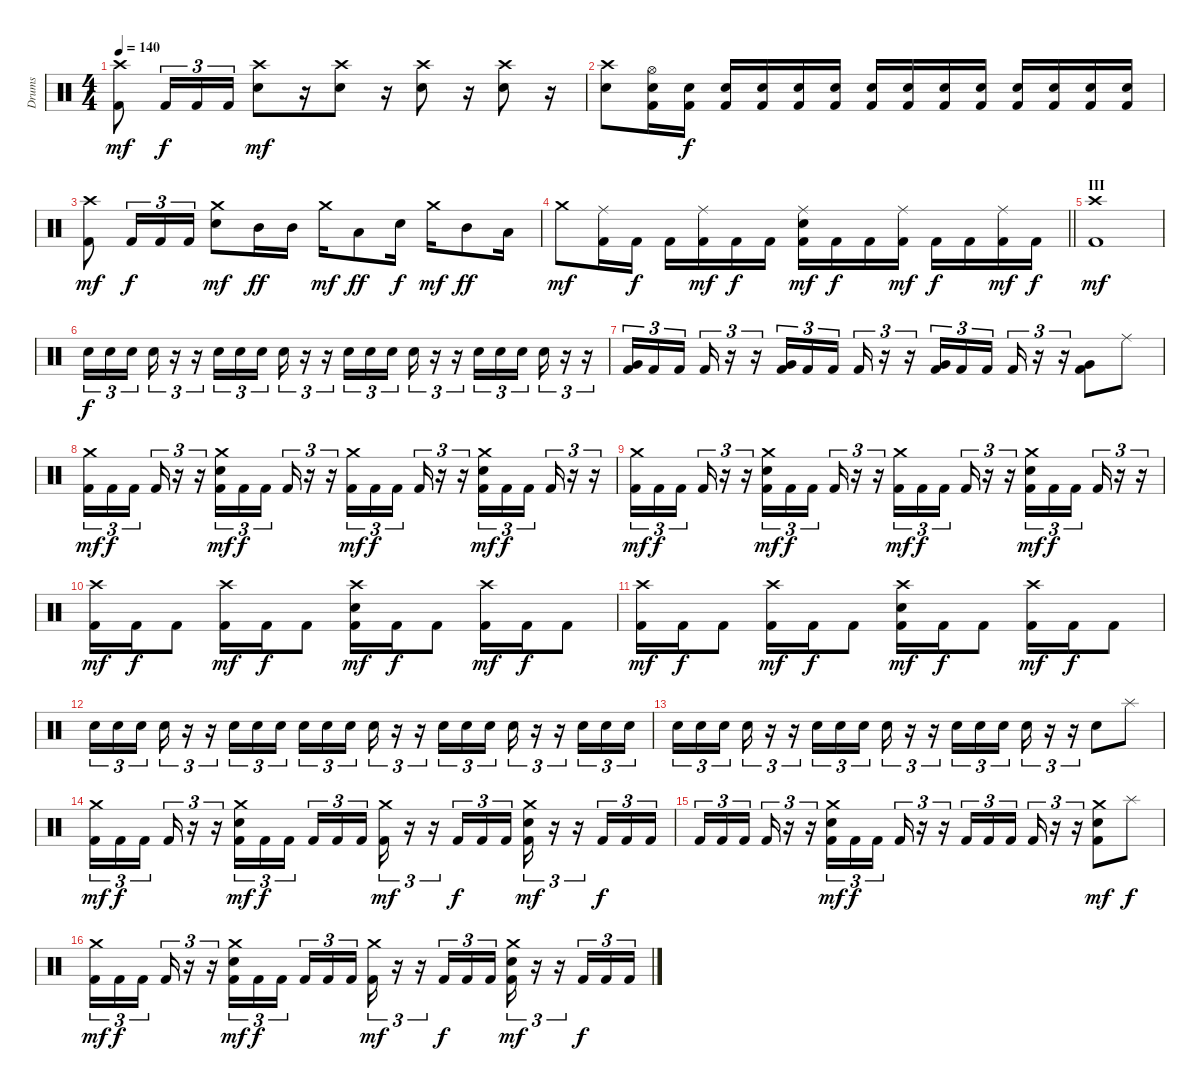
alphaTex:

\track ("Drums" "Drums") {instrument percussion}
\staff {score}
\articulation defaults
\ts (4 4)
\tempo 140
\clef neutral
\ks c
("Crash high (hit)" "Kick (hit) 2").8{dy mf} "Kick (hit) 2".16{tu (3 2) dy f} "Kick (hit) 2".16{tu (3 2)} "Kick (hit) 2".16{tu (3 2)} ("Crash high (hit)" "Electric Snare (hit)").8{dy mf} r.16 ("Crash high (hit)" "Electric Snare (hit)").8 r.16 ("Crash high (hit)" "Electric Snare (hit)").8 r.16 ("Crash high (hit)" "Electric Snare (hit)").8 r.16 |
("Crash high (hit)" "Electric Snare (hit)").8 ("Hi-Hat (open)" "Electric Snare (hit)" "Kick (hit) 2").16 ("Electric Snare (hit)" "Kick (hit) 2").16{dy f} ("Electric Snare (hit)" "Kick (hit) 2").16 ("Electric Snare (hit)" "Kick (hit) 2").16 ("Electric Snare (hit)" "Kick (hit) 2").16 ("Electric Snare (hit)" "Kick (hit) 2").16 ("Electric Snare (hit)" "Kick (hit) 2").16 ("Electric Snare (hit)" "Kick (hit) 2").16 ("Electric Snare (hit)" "Kick (hit) 2").16 ("Electric Snare (hit)" "Kick (hit) 2").16 ("Electric Snare (hit)" "Kick (hit) 2").16 ("Electric Snare (hit)" "Kick (hit) 2").16 ("Electric Snare (hit)" "Kick (hit) 2").16 ("Electric Snare (hit)" "Kick (hit) 2").16 |
("Crash high (hit)" "Kick (hit) 2").8{dy mf} "Kick (hit) 2".16{tu (3 2) dy f} "Kick (hit) 2".16{tu (3 2)} "Kick (hit) 2".16{tu (3 2)} ("Crash medium (hit)" "Electric Snare (hit)").8{dy mf} "Mid Tom (hit)".16{dy ff} "Mid Tom (hit)".16 "Crash medium (hit)".16{dy mf} "Low Tom (hit)".8{dy ff} "Electric Snare (hit)".16{dy f} "Crash medium (hit)".16{dy mf} "Mid Tom (hit)".8{dy ff} "Low Tom (hit)".16 |
\barLineRight lightlight "Crash medium (hit)".8{dy mf}
("Ride (middle)" "Kick (hit) 2").16 "Kick (hit) 2".16{dy f} "Kick (hit) 2".16 ("Ride (middle)" "Kick (hit) 2").16{dy mf} "Kick (hit) 2".16{dy f} "Kick (hit) 2".16 ("Ride (middle)" "Electric Snare (hit)" "Kick (hit) 2").16{dy mf} "Kick (hit) 2".16{dy f} "Kick (hit) 2".16 ("Ride (middle)" "Kick (hit) 2").16{dy mf} "Kick (hit) 2".16{dy f} "Kick (hit) 2".16 ("Ride (middle)" "Kick (hit) 2").16{dy mf} "Kick (hit) 2".16{dy f} |
\section ("" "III")
("Crash high (hit)" "Kick (hit) 2").1{dy mf} |
"Electric Snare (hit)".16{tu (3 2) dy f} "Electric Snare (hit)".16{tu (3 2)} "Electric Snare (hit)".16{tu (3 2) beam splitsecondary} "Electric Snare (hit)".16{tu (3 2)} r.16{tu (3 2)} r.16{tu (3 2)} "Electric Snare (hit)".16{tu (3 2)} "Electric Snare (hit)".16{tu (3 2)} "Electric Snare (hit)".16{tu (3 2) beam splitsecondary} "Electric Snare (hit)".16{tu (3 2)} r.16{tu (3 2)} r.16{tu (3 2)} "Electric Snare (hit)".16{tu (3 2)} "Electric Snare (hit)".16{tu (3 2)} "Electric Snare (hit)".16{tu (3 2) beam splitsecondary} "Electric Snare (hit)".16{tu (3 2)} r.16{tu (3 2)} r.16{tu (3 2)} "Electric Snare (hit)".16{tu (3 2)} "Electric Snare (hit)".16{tu (3 2)} "Electric Snare (hit)".16{tu (3 2) beam splitsecondary} "Electric Snare (hit)".16{tu (3 2)} r.16{tu (3 2)} r.16{tu (3 2)} |
("Very Low Tom (hit)" "Kick (hit) 2").16{tu (3 2)} "Kick (hit) 2".16{tu (3 2)} "Kick (hit) 2".16{tu (3 2) beam splitsecondary} "Kick (hit) 2".16{tu (3 2)} r.16{tu (3 2)} r.16{tu (3 2)} ("Very Low Tom (hit)" "Kick (hit) 2").16{tu (3 2)} "Kick (hit) 2".16{tu (3 2)} "Kick (hit) 2".16{tu (3 2) beam splitsecondary} "Kick (hit) 2".16{tu (3 2)} r.16{tu (3 2)} r.16{tu (3 2)} ("Very Low Tom (hit)" "Kick (hit) 2").16{tu (3 2)} "Kick (hit) 2".16{tu (3 2)} "Kick (hit) 2".16{tu (3 2) beam splitsecondary} "Kick (hit) 2".16{tu (3 2)} r.16{tu (3 2)} r.16{tu (3 2)} ("Very Low Tom (hit)" "Kick (hit) 2").8 "Ride (middle)".8 |
("Crash medium (hit)" "Kick (hit) 2").16{tu (3 2) dy mf} "Kick (hit) 2".16{tu (3 2) dy f} "Kick (hit) 2".16{tu (3 2) beam splitsecondary} "Kick (hit) 2".16{tu (3 2)} r.16{tu (3 2)} r.16{tu (3 2)} ("Crash medium (hit)" "Electric Snare (hit)" "Kick (hit) 2").16{tu (3 2) dy mf} "Kick (hit) 2".16{tu (3 2) dy f} "Kick (hit) 2".16{tu (3 2) beam splitsecondary} "Kick (hit) 2".16{tu (3 2)} r.16{tu (3 2)} r.16{tu (3 2)} ("Crash medium (hit)" "Kick (hit) 2").16{tu (3 2) dy mf} "Kick (hit) 2".16{tu (3 2) dy f} "Kick (hit) 2".16{tu (3 2) beam splitsecondary} "Kick (hit) 2".16{tu (3 2)} r.16{tu (3 2)} r.16{tu (3 2)} ("Crash medium (hit)" "Electric Snare (hit)" "Kick (hit) 2").16{tu (3 2) dy mf} "Kick (hit) 2".16{tu (3 2) dy f} "Kick (hit) 2".16{tu (3 2) beam splitsecondary} "Kick (hit) 2".16{tu (3 2)} r.16{tu (3 2)} r.16{tu (3 2)} |
("Crash medium (hit)" "Kick (hit) 2").16{tu (3 2) dy mf} "Kick (hit) 2".16{tu (3 2) dy f} "Kick (hit) 2".16{tu (3 2) beam splitsecondary} "Kick (hit) 2".16{tu (3 2)} r.16{tu (3 2)} r.16{tu (3 2)} ("Crash medium (hit)" "Electric Snare (hit)" "Kick (hit) 2").16{tu (3 2) dy mf} "Kick (hit) 2".16{tu (3 2) dy f} "Kick (hit) 2".16{tu (3 2) beam splitsecondary} "Kick (hit) 2".16{tu (3 2)} r.16{tu (3 2)} r.16{tu (3 2)} ("Crash medium (hit)" "Kick (hit) 2").16{tu (3 2) dy mf} "Kick (hit) 2".16{tu (3 2) dy f} "Kick (hit) 2".16{tu (3 2) beam splitsecondary} "Kick (hit) 2".16{tu (3 2)} r.16{tu (3 2)} r.16{tu (3 2)} ("Crash medium (hit)" "Electric Snare (hit)" "Kick (hit) 2").16{tu (3 2) dy mf} "Kick (hit) 2".16{tu (3 2) dy f} "Kick (hit) 2".16{tu (3 2) beam splitsecondary} "Kick (hit) 2".16{tu (3 2)} r.16{tu (3 2)} r.16{tu (3 2)} |
("Crash high (hit)" "Kick (hit) 2").16{dy mf} "Kick (hit) 2".16{dy f} "Kick (hit) 2".8 ("Crash high (hit)" "Kick (hit) 2").16{dy mf} "Kick (hit) 2".16{dy f} "Kick (hit) 2".8 ("Crash high (hit)" "Electric Snare (hit)" "Kick (hit) 2").16{dy mf} "Kick (hit) 2".16{dy f} "Kick (hit) 2".8 ("Crash high (hit)" "Kick (hit) 2").16{dy mf} "Kick (hit) 2".16{dy f} "Kick (hit) 2".8 |
("Crash high (hit)" "Kick (hit) 2").16{dy mf} "Kick (hit) 2".16{dy f} "Kick (hit) 2".8 ("Crash high (hit)" "Kick (hit) 2").16{dy mf} "Kick (hit) 2".16{dy f} "Kick (hit) 2".8 ("Crash high (hit)" "Electric Snare (hit)" "Kick (hit) 2").16{dy mf} "Kick (hit) 2".16{dy f} "Kick (hit) 2".8 ("Crash high (hit)" "Kick (hit) 2").16{dy mf} "Kick (hit) 2".16{dy f} "Kick (hit) 2".8 |
"Electric Snare (hit)".16{tu (3 2)} "Electric Snare (hit)".16{tu (3 2)} "Electric Snare (hit)".16{tu (3 2) beam splitsecondary} "Electric Snare (hit)".16{tu (3 2)} r.16{tu (3 2)} r.16{tu (3 2)} "Electric Snare (hit)".16{tu (3 2)} "Electric Snare (hit)".16{tu (3 2)} "Electric Snare (hit)".16{tu (3 2) beam splitsecondary} "Electric Snare (hit)".16{tu (3 2)} "Electric Snare (hit)".16{tu (3 2)} "Electric Snare (hit)".16{tu (3 2)} "Electric Snare (hit)".16{tu (3 2)} r.16{tu (3 2)} r.16{tu (3 2)} "Electric Snare (hit)".16{tu (3 2)} "Electric Snare (hit)".16{tu (3 2)} "Electric Snare (hit)".16{tu (3 2)} "Electric Snare (hit)".16{tu (3 2)} r.16{tu (3 2)} r.16{tu (3 2)} "Electric Snare (hit)".16{tu (3 2)} "Electric Snare (hit)".16{tu (3 2)} "Electric Snare (hit)".16{tu (3 2)} |
"Electric Snare (hit)".16{tu (3 2)} "Electric Snare (hit)".16{tu (3 2)} "Electric Snare (hit)".16{tu (3 2) beam splitsecondary} "Electric Snare (hit)".16{tu (3 2)} r.16{tu (3 2)} r.16{tu (3 2)} "Electric Snare (hit)".16{tu (3 2)} "Electric Snare (hit)".16{tu (3 2)} "Electric Snare (hit)".16{tu (3 2) beam splitsecondary} "Electric Snare (hit)".16{tu (3 2)} r.16{tu (3 2)} r.16{tu (3 2)} "Electric Snare (hit)".16{tu (3 2)} "Electric Snare (hit)".16{tu (3 2)} "Electric Snare (hit)".16{tu (3 2) beam splitsecondary} "Electric Snare (hit)".16{tu (3 2)} r.16{tu (3 2)} r.16{tu (3 2)} "Electric Snare (hit)".8 "Splash (hit)".8 |
("Crash medium (hit)" "Kick (hit) 2").16{tu (3 2) dy mf} "Kick (hit) 2".16{tu (3 2) dy f} "Kick (hit) 2".16{tu (3 2) beam splitsecondary} "Kick (hit) 2".16{tu (3 2)} r.16{tu (3 2)} r.16{tu (3 2)} ("Crash medium (hit)" "Electric Snare (hit)" "Kick (hit) 2").16{tu (3 2) dy mf} "Kick (hit) 2".16{tu (3 2) dy f} "Kick (hit) 2".16{tu (3 2) beam splitsecondary} "Kick (hit) 2".16{tu (3 2)} "Kick (hit) 2".16{tu (3 2)} "Kick (hit) 2".16{tu (3 2)} ("Crash medium (hit)" "Kick (hit) 2").16{tu (3 2) dy mf} r.16{tu (3 2)} r.16{tu (3 2)} "Kick (hit) 2".16{tu (3 2) dy f} "Kick (hit) 2".16{tu (3 2)} "Kick (hit) 2".16{tu (3 2)} ("Crash medium (hit)" "Electric Snare (hit)" "Kick (hit) 2").16{tu (3 2) dy mf} r.16{tu (3 2)} r.16{tu (3 2)} "Kick (hit) 2".16{tu (3 2) dy f} "Kick (hit) 2".16{tu (3 2)} "Kick (hit) 2".16{tu (3 2)} |
"Kick (hit) 2".16{tu (3 2)} "Kick (hit) 2".16{tu (3 2)} "Kick (hit) 2".16{tu (3 2) beam splitsecondary} "Kick (hit) 2".16{tu (3 2)} r.16{tu (3 2)} r.16{tu (3 2)} ("Crash medium (hit)" "Electric Snare (hit)" "Kick (hit) 2").16{tu (3 2) dy mf} "Kick (hit) 2".16{tu (3 2) dy f} "Kick (hit) 2".16{tu (3 2) beam splitsecondary} "Kick (hit) 2".16{tu (3 2)} r.16{tu (3 2)} r.16{tu (3 2)} "Kick (hit) 2".16{tu (3 2)} "Kick (hit) 2".16{tu (3 2)} "Kick (hit) 2".16{tu (3 2) beam splitsecondary} "Kick (hit) 2".16{tu (3 2)} r.16{tu (3 2)} r.16{tu (3 2)} ("Crash medium (hit)" "Electric Snare (hit)" "Kick (hit) 2").8{dy mf} "Splash (hit)".8{dy f} |
("Crash medium (hit)" "Kick (hit) 2").16{tu (3 2) dy mf} "Kick (hit) 2".16{tu (3 2) dy f} "Kick (hit) 2".16{tu (3 2) beam splitsecondary} "Kick (hit) 2".16{tu (3 2)} r.16{tu (3 2)} r.16{tu (3 2)} ("Crash medium (hit)" "Electric Snare (hit)" "Kick (hit) 2").16{tu (3 2) dy mf} "Kick (hit) 2".16{tu (3 2) dy f} "Kick (hit) 2".16{tu (3 2) beam splitsecondary} "Kick (hit) 2".16{tu (3 2)} "Kick (hit) 2".16{tu (3 2)} "Kick (hit) 2".16{tu (3 2)} ("Crash medium (hit)" "Kick (hit) 2").16{tu (3 2) dy mf} r.16{tu (3 2)} r.16{tu (3 2)} "Kick (hit) 2".16{tu (3 2) dy f} "Kick (hit) 2".16{tu (3 2)} "Kick (hit) 2".16{tu (3 2)} ("Crash medium (hit)" "Electric Snare (hit)" "Kick (hit) 2").16{tu (3 2) dy mf} r.16{tu (3 2)} r.16{tu (3 2)} "Kick (hit) 2".16{tu (3 2) dy f} "Kick (hit) 2".16{tu (3 2)} "Kick (hit) 2".16{tu (3 2)}
